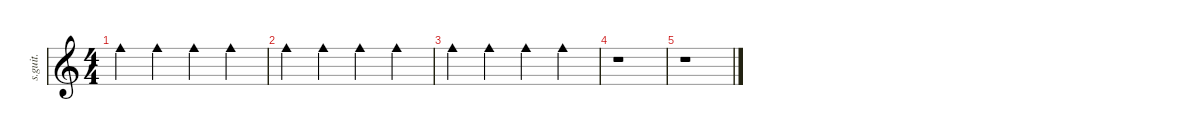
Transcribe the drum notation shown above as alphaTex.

\defaultSystemsLayout 4
\hideDynamics
\bracketExtendMode nobrackets
\track ("Cowbell" "s.guit.") {instrument percussion}
\staff {score}
\articulation defaults
\ts (4 4)
\tempo (107 hide)
\clef g2
\ks c "Cowbell medium (hit)".4{dy mp} "Cowbell medium (hit)".4 "Cowbell medium (hit)".4 "Cowbell medium (hit)".4
|
"Cowbell medium (hit)".4 "Cowbell medium (hit)".4 "Cowbell medium (hit)".4 "Cowbell medium (hit)".4 |
"Cowbell medium (hit)".4 "Cowbell medium (hit)".4 "Cowbell medium (hit)".4 "Cowbell medium (hit)".4 |
r.1 |
r.1
